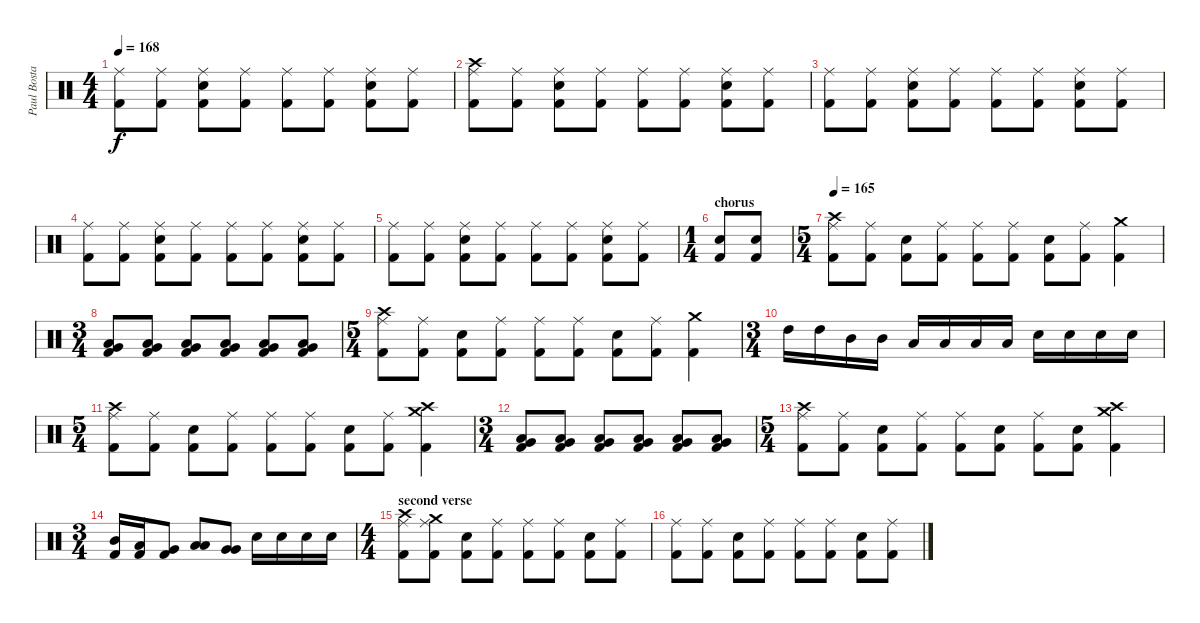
\track ("Paul Bostaph" "Paul Bosta") {instrument percussion}
\staff {score}
\articulation defaults
\ts (4 4)
\tempo 168
\clef neutral
\ks c
("Ride (middle)" "Kick (hit) 2").8{dy f} ("Ride (middle)" "Kick (hit) 2").8 ("Ride (middle)" "Snare (hit) 2" "Kick (hit) 2").8 ("Ride (middle)" "Kick (hit) 2").8 ("Ride (middle)" "Kick (hit) 2").8 ("Ride (middle)" "Kick (hit) 2").8 ("Ride (middle)" "Snare (hit) 2" "Kick (hit) 2").8 ("Ride (middle)" "Kick (hit) 2").8 |
("Crash high (hit)" "Ride (middle)" "Kick (hit) 2").8 ("Ride (middle)" "Kick (hit) 2").8 ("Ride (middle)" "Snare (hit) 2" "Kick (hit) 2").8 ("Ride (middle)" "Kick (hit) 2").8 ("Ride (middle)" "Kick (hit) 2").8 ("Ride (middle)" "Kick (hit) 2").8 ("Ride (middle)" "Snare (hit) 2" "Kick (hit) 2").8 ("Ride (middle)" "Kick (hit) 2").8 |
("Ride (middle)" "Kick (hit) 2").8 ("Ride (middle)" "Kick (hit) 2").8 ("Ride (middle)" "Snare (hit) 2" "Kick (hit) 2").8 ("Ride (middle)" "Kick (hit) 2").8 ("Ride (middle)" "Kick (hit) 2").8 ("Ride (middle)" "Kick (hit) 2").8 ("Ride (middle)" "Snare (hit) 2" "Kick (hit) 2").8 ("Ride (middle)" "Kick (hit) 2").8 |
("Ride (middle)" "Kick (hit) 2").8 ("Ride (middle)" "Kick (hit) 2").8 ("Ride (middle)" "Snare (hit) 2" "Kick (hit) 2").8 ("Ride (middle)" "Kick (hit) 2").8 ("Ride (middle)" "Kick (hit) 2").8 ("Ride (middle)" "Kick (hit) 2").8 ("Ride (middle)" "Snare (hit) 2" "Kick (hit) 2").8 ("Ride (middle)" "Kick (hit) 2").8 |
("Ride (middle)" "Kick (hit) 2").8 ("Ride (middle)" "Kick (hit) 2").8 ("Ride (middle)" "Snare (hit) 2" "Kick (hit) 2").8 ("Ride (middle)" "Kick (hit) 2").8 ("Ride (middle)" "Kick (hit) 2").8 ("Ride (middle)" "Kick (hit) 2").8 ("Ride (middle)" "Snare (hit) 2" "Kick (hit) 2").8 ("Ride (middle)" "Kick (hit) 2").8 |
\ts (1 4)
\section ("" "chorus")
("Snare (hit) 2" "Kick (hit) 2").8 ("Snare (hit) 2" "Kick (hit) 2").8 |
\ts (5 4)
\tempo 165
("Crash high (hit)" "Ride (middle)" "Kick (hit) 2").8 ("Ride (middle)" "Kick (hit) 2").8 ("Snare (hit) 2" "Kick (hit) 2").8 ("Ride (middle)" "Kick (hit) 2").8 ("Ride (middle)" "Kick (hit) 2").8 ("Ride (middle)" "Kick (hit) 2").8 ("Snare (hit) 2" "Kick (hit) 2").8 ("Ride (middle)" "Kick (hit) 2").8 ("Crash medium (hit)" "Kick (hit) 2").4 |
\ts (3 4)
("Very Low Tom (hit)" "Low Tom (hit)" "Kick (hit) 2").8 ("Very Low Tom (hit)" "Low Tom (hit)" "Kick (hit) 2").8 ("Very Low Tom (hit)" "Low Tom (hit)" "Kick (hit) 2").8 ("Very Low Tom (hit)" "Low Tom (hit)" "Kick (hit) 2").8 ("Very Low Tom (hit)" "Low Tom (hit)" "Kick (hit) 2").8 ("Very Low Tom (hit)" "Low Tom (hit)" "Kick (hit) 2").8 |
\ts (5 4)
("Crash high (hit)" "Ride (middle)" "Kick (hit) 2").8 ("Ride (middle)" "Kick (hit) 2").8 ("Snare (hit) 2" "Kick (hit) 2").8 ("Ride (middle)" "Kick (hit) 2").8 ("Ride (middle)" "Kick (hit) 2").8 ("Ride (middle)" "Kick (hit) 2").8 ("Snare (hit) 2" "Kick (hit) 2").8 ("Ride (middle)" "Kick (hit) 2").8 ("Crash medium (hit)" "Kick (hit) 2").4 |
\ts (3 4)
"High Tom (hit)".16 "High Tom (hit)".16 "Mid Tom (hit)".16 "Mid Tom (hit)".16 "Low Tom (hit)".16 "Low Tom (hit)".16 "Low Tom (hit)".16 "Low Tom (hit)".16 "Snare (hit) 2".16 "Snare (hit) 2".16 "Snare (hit) 2".16 "Snare (hit) 2".16 |
\ts (5 4)
("Crash high (hit)" "Ride (middle)" "Kick (hit) 2").8 ("Ride (middle)" "Kick (hit) 2").8 ("Snare (hit) 2" "Kick (hit) 2").8 ("Ride (middle)" "Kick (hit) 2").8 ("Ride (middle)" "Kick (hit) 2").8 ("Ride (middle)" "Kick (hit) 2").8 ("Snare (hit) 2" "Kick (hit) 2").8 ("Ride (middle)" "Kick (hit) 2").8 ("Crash medium (hit)" "Crash high (hit)" "Kick (hit) 2").4 |
\ts (3 4)
("Very Low Tom (hit)" "Low Tom (hit)" "Kick (hit) 2").8 ("Very Low Tom (hit)" "Low Tom (hit)" "Kick (hit) 2").8 ("Very Low Tom (hit)" "Low Tom (hit)" "Kick (hit) 2").8 ("Very Low Tom (hit)" "Low Tom (hit)" "Kick (hit) 2").8 ("Very Low Tom (hit)" "Low Tom (hit)" "Kick (hit) 2").8 ("Very Low Tom (hit)" "Low Tom (hit)" "Kick (hit) 2").8 |
\ts (5 4)
("Crash high (hit)" "Ride (middle)" "Kick (hit) 2").8 ("Ride (middle)" "Kick (hit) 2").8 ("Snare (hit) 2" "Kick (hit) 2").8 ("Ride (middle)" "Kick (hit) 2").8 ("Ride (middle)" "Kick (hit) 2").8 ("Snare (hit) 2" "Kick (hit) 2").8 ("Ride (middle)" "Kick (hit) 2").8 ("Snare (hit) 2" "Kick (hit) 2").8 ("Crash medium (hit)" "Crash high (hit)" "Kick (hit) 2").4 |
\ts (3 4)
("Kick (hit) 2" "Mid Tom (hit)").16 ("Kick (hit) 2" "Low Tom (hit)").16 ("Kick (hit) 2" "Very Low Tom (hit)").8 ("Low Tom (hit)" "Low Tom (hit)").8 ("Very Low Tom (hit)" "Very Low Tom (hit)").8 "Snare (hit) 2".16 "Snare (hit) 2".16 "Snare (hit) 2".16 "Snare (hit) 2".16 |
\ts (4 4)
\section ("" "second verse")
("Crash high (hit)" "Ride (middle)" "Kick (hit) 2").8 ("Crash medium (hit)" "Ride (middle)" "Kick (hit) 2").8 ("Snare (hit) 2" "Kick (hit) 2").8 ("Ride (middle)" "Kick (hit) 2").8 ("Ride (middle)" "Kick (hit) 2").8 ("Ride (middle)" "Kick (hit) 2").8 ("Snare (hit) 2" "Kick (hit) 2").8 ("Ride (middle)" "Kick (hit) 2").8 |
("Ride (middle)" "Kick (hit) 2").8 ("Ride (middle)" "Kick (hit) 2").8 ("Snare (hit) 2" "Kick (hit) 2").8 ("Ride (middle)" "Kick (hit) 2").8 ("Ride (middle)" "Kick (hit) 2").8 ("Ride (middle)" "Kick (hit) 2").8 ("Snare (hit) 2" "Kick (hit) 2").8 ("Ride (middle)" "Kick (hit) 2").8
